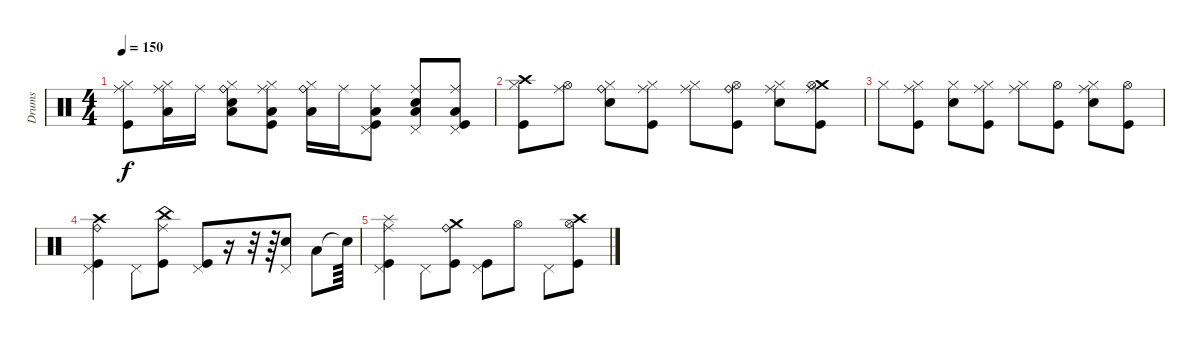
\track ("Drums" "Drums") {instrument percussion}
\staff {score}
\articulation defaults
\ts (4 4)
\tempo 150
\clef neutral
\ks c
("Kick (hit)" "Hi-Hat (closed)" "Ride (middle)").8{dy f} ("Low Floor Tom (hit)" "Hi-Hat (closed)" "Ride (middle)").16 "Ride (middle)".16 ("Snare (hit) 2" "Low Floor Tom (hit)" "Hi-Hat (closed)" "Ride (bell)").8 ("Kick (hit)" "Low Floor Tom (hit)" "Hi-Hat (closed)" "Ride (middle)").8 ("Low Floor Tom (hit)" "Hi-Hat (closed)" "Ride (bell)").16 "Ride (middle)".16 ("Pedal Hi-Hat (hit)" "Ride (middle)" "Kick (hit)" "Low Floor Tom (hit)").8 ("Snare (hit) 2" "Low Floor Tom (hit)" "Pedal Hi-Hat (hit)" "Ride (middle)").8 ("Pedal Hi-Hat (hit)" "Low Floor Tom (hit)" "Ride (middle)" "Kick (hit)").8 |
("Crash high (hit)" "Kick (hit)" "Hi-Hat (closed)").8 ("Hi-Hat (open)" "Ride (middle)").8 ("Snare (hit) 2" "Hi-Hat (closed)" "Ride (bell)").8 ("Hi-Hat (closed)" "Ride (middle)" "Kick (hit)").8 ("Hi-Hat (closed)" "Ride (middle)").8 ("Kick (hit)" "Hi-Hat (open)" "Ride (bell)").8 ("Snare (hit) 2" "Hi-Hat (closed)" "Ride (middle)").8 ("Crash medium (hit)" "Hi-Hat (open)" "Kick (hit)" "Ride (middle)").8 |
"Hi-Hat (closed)".8 ("Kick (hit)" "Hi-Hat (closed)" "Ride (middle)").8 ("Snare (hit) 2" "Hi-Hat (closed)").8 ("Kick (hit)" "Hi-Hat (closed)" "Ride (middle)").8 ("Hi-Hat (closed)" "Ride (middle)").8 ("Kick (hit)" "Hi-Hat (open)").8 ("Snare (hit) 2" "Hi-Hat (closed)" "Ride (middle)").8 ("Kick (hit)" "Hi-Hat (open)").8 |
("Kick (hit)" "Pedal Hi-Hat (hit)" "Crash high (hit)" "Ride (bell)").4 "Pedal Hi-Hat (hit)".8 ("Kick (hit)" "Ride (middle)" "China (hit)").8 ("Kick (hit)" "Pedal Hi-Hat (hit)").8 r.16 r.32 r.64 ("Snare (hit) 2" "Pedal Hi-Hat (hit)").8 "Low Floor Tom (hit)".8 "Snare (hit)"{t}.64 |
("Splash (hit)" "Kick (hit)" "Ride (middle)" "Pedal Hi-Hat (hit)").4 "Pedal Hi-Hat (hit)".8 ("Ride (bell)" "Crash medium (hit)" "Kick (hit)").8 ("Kick (hit)" "Pedal Hi-Hat (hit)").8 "Hi-Hat (open)".8 "Pedal Hi-Hat (hit)".8 ("Kick (hit)" "Hi-Hat (open)" "Crash high (hit)").8
